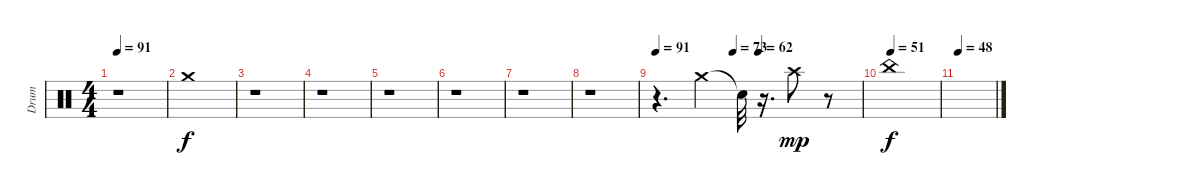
\track ("Drum" "Drum") {instrument percussion}
\staff {score}
\articulation defaults
\ts (4 4)
\tempo 91
\clef neutral
\ks c
r.1{dy f} |
"Crash medium (hit)".1 |
r.1 |
r.1 |
r.1 |
r.1 |
r.1 |
r.1 |
\tempo 91
\tempo (73 0.375)
\tempo (62 0.5)
r.4{d} "Crash medium (hit)".4 "Snare (hit)"{t}.32 r.16{d} "Crash high (hit)".8{dy mp} r.8 |
\tempo (51)
"China (hit)".1{dy f} |
\tempo 48
